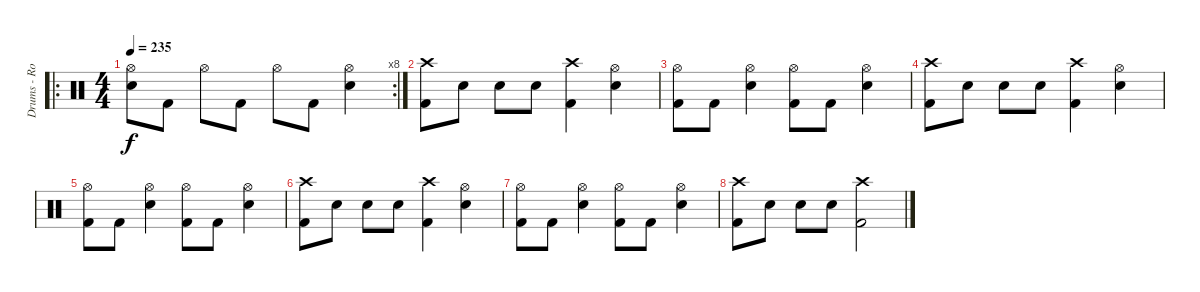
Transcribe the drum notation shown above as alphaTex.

\track ("Drums - Robo" "Drums - Ro") {instrument percussion}
\staff {score}
\articulation defaults
\ro
\rc 8
\ts (4 4)
\tempo 235
\clef neutral
\ks c
("Hi-Hat (open)" "Electric Snare (hit)").8{dy f} "Kick (hit) 2".8 "Hi-Hat (open)".8 "Kick (hit) 2".8 "Hi-Hat (open)".8 "Kick (hit) 2".8 ("Hi-Hat (open)" "Electric Snare (hit)").4 |
("Crash high (hit)" "Kick (hit) 2").8 "Electric Snare (hit)".8 "Electric Snare (hit)".8 "Electric Snare (hit)".8 ("Crash high (hit)" "Kick (hit) 2").4 ("Hi-Hat (open)" "Electric Snare (hit)").4 |
("Hi-Hat (open)" "Kick (hit) 2").8 "Kick (hit) 2".8 ("Hi-Hat (open)" "Electric Snare (hit)").4 ("Hi-Hat (open)" "Kick (hit) 2").8 "Kick (hit) 2".8 ("Hi-Hat (open)" "Electric Snare (hit)").4 |
("Crash high (hit)" "Kick (hit) 2").8 "Electric Snare (hit)".8 "Electric Snare (hit)".8 "Electric Snare (hit)".8 ("Crash high (hit)" "Kick (hit) 2").4 ("Hi-Hat (open)" "Electric Snare (hit)").4 |
("Hi-Hat (open)" "Kick (hit) 2").8 "Kick (hit) 2".8 ("Hi-Hat (open)" "Electric Snare (hit)").4 ("Hi-Hat (open)" "Kick (hit) 2").8 "Kick (hit) 2".8 ("Hi-Hat (open)" "Electric Snare (hit)").4 |
("Crash high (hit)" "Kick (hit) 2").8 "Electric Snare (hit)".8 "Electric Snare (hit)".8 "Electric Snare (hit)".8 ("Crash high (hit)" "Kick (hit) 2").4 ("Hi-Hat (open)" "Electric Snare (hit)").4 |
("Hi-Hat (open)" "Kick (hit) 2").8 "Kick (hit) 2".8 ("Hi-Hat (open)" "Electric Snare (hit)").4 ("Hi-Hat (open)" "Kick (hit) 2").8 "Kick (hit) 2".8 ("Hi-Hat (open)" "Electric Snare (hit)").4 |
("Crash high (hit)" "Kick (hit) 2").8 "Electric Snare (hit)".8 "Electric Snare (hit)".8 "Electric Snare (hit)".8 ("Crash high (hit)" "Kick (hit) 2").2
